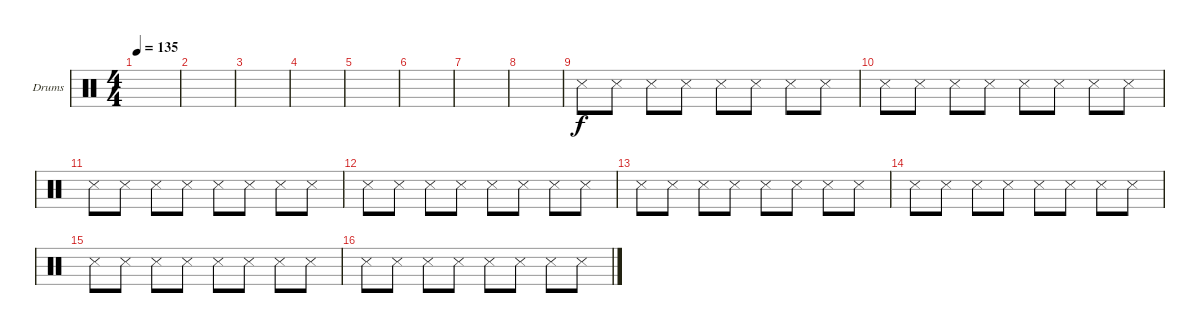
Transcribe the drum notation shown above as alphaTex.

\defaultSystemsLayout 4
\bracketExtendMode groupsimilarinstruments
\firstSystemTrackNameOrientation horizontal
\otherSystemsTrackNameOrientation horizontal
\track ("Helders" "Drums") {instrument percussion}
\staff {score}
\articulation defaults
\ts (4 4)
\tempo 135
\clef neutral
\ks c
|
|
|
|
|
|
|
|
"Snare (side stick) 3".8 "Snare (side stick) 3".8 "Snare (side stick) 3".8 "Snare (side stick) 3".8 "Snare (side stick) 3".8 "Snare (side stick) 3".8 "Snare (side stick) 3".8 "Snare (side stick) 3".8 |
"Snare (side stick) 3".8 "Snare (side stick) 3".8 "Snare (side stick) 3".8 "Snare (side stick) 3".8 "Snare (side stick) 3".8 "Snare (side stick) 3".8 "Snare (side stick) 3".8 "Snare (side stick) 3".8 |
"Snare (side stick) 3".8 "Snare (side stick) 3".8 "Snare (side stick) 3".8 "Snare (side stick) 3".8 "Snare (side stick) 3".8 "Snare (side stick) 3".8 "Snare (side stick) 3".8 "Snare (side stick) 3".8 |
"Snare (side stick) 3".8 "Snare (side stick) 3".8 "Snare (side stick) 3".8 "Snare (side stick) 3".8 "Snare (side stick) 3".8 "Snare (side stick) 3".8 "Snare (side stick) 3".8 "Snare (side stick) 3".8 |
"Snare (side stick) 3".8 "Snare (side stick) 3".8 "Snare (side stick) 3".8 "Snare (side stick) 3".8 "Snare (side stick) 3".8 "Snare (side stick) 3".8 "Snare (side stick) 3".8 "Snare (side stick) 3".8 |
"Snare (side stick) 3".8 "Snare (side stick) 3".8 "Snare (side stick) 3".8 "Snare (side stick) 3".8 "Snare (side stick) 3".8 "Snare (side stick) 3".8 "Snare (side stick) 3".8 "Snare (side stick) 3".8 |
"Snare (side stick) 3".8 "Snare (side stick) 3".8 "Snare (side stick) 3".8 "Snare (side stick) 3".8 "Snare (side stick) 3".8 "Snare (side stick) 3".8 "Snare (side stick) 3".8 "Snare (side stick) 3".8 |
"Snare (side stick) 3".8 "Snare (side stick) 3".8 "Snare (side stick) 3".8 "Snare (side stick) 3".8 "Snare (side stick) 3".8 "Snare (side stick) 3".8 "Snare (side stick) 3".8 "Snare (side stick) 3".8
